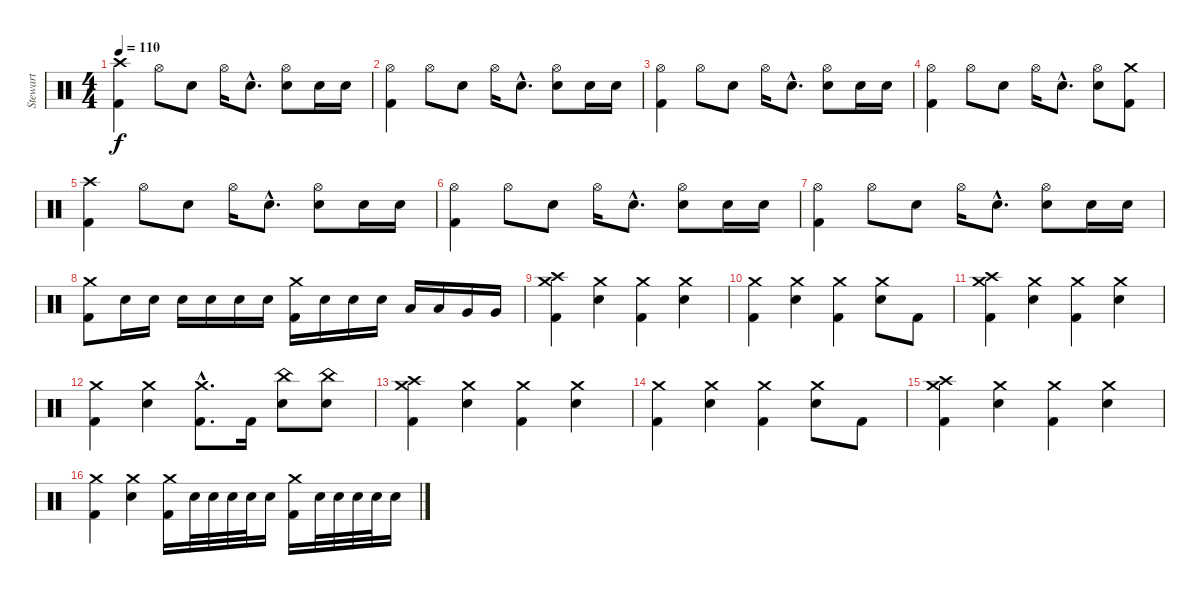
\track ("Stewart" "Stewart") {instrument percussion}
\staff {score}
\articulation defaults
\ts (4 4)
\tempo 110
\clef neutral
\ks c
("Crash high (hit)" "Kick (hit) 2").4{dy f} "Hi-Hat (open)".8 "Electric Snare (hit)".8 "Hi-Hat (open)".16 "Electric Snare (hit)"{hac}.8{d} ("Hi-Hat (open)" "Electric Snare (hit)").8 "Electric Snare (hit)".16 "Electric Snare (hit)".16 |
("Hi-Hat (open)" "Kick (hit) 2").4 "Hi-Hat (open)".8 "Electric Snare (hit)".8 "Hi-Hat (open)".16 "Electric Snare (hit)"{hac}.8{d} ("Hi-Hat (open)" "Electric Snare (hit)").8 "Electric Snare (hit)".16 "Electric Snare (hit)".16 |
("Hi-Hat (open)" "Kick (hit) 2").4 "Hi-Hat (open)".8 "Electric Snare (hit)".8 "Hi-Hat (open)".16 "Electric Snare (hit)"{hac}.8{d} ("Hi-Hat (open)" "Electric Snare (hit)").8 "Electric Snare (hit)".16 "Electric Snare (hit)".16 |
("Hi-Hat (open)" "Kick (hit) 2").4 "Hi-Hat (open)".8 "Electric Snare (hit)".8 "Hi-Hat (open)".16 "Electric Snare (hit)"{hac}.8{d} ("Hi-Hat (open)" "Electric Snare (hit)").8 ("Crash medium (hit)" "Kick (hit) 2").8 |
("Crash high (hit)" "Kick (hit) 2").4 "Hi-Hat (open)".8 "Electric Snare (hit)".8 "Hi-Hat (open)".16 "Electric Snare (hit)"{hac}.8{d} ("Hi-Hat (open)" "Electric Snare (hit)").8 "Electric Snare (hit)".16 "Electric Snare (hit)".16 |
("Hi-Hat (open)" "Kick (hit) 2").4 "Hi-Hat (open)".8 "Electric Snare (hit)".8 "Hi-Hat (open)".16 "Electric Snare (hit)"{hac}.8{d} ("Hi-Hat (open)" "Electric Snare (hit)").8 "Electric Snare (hit)".16 "Electric Snare (hit)".16 |
("Hi-Hat (open)" "Kick (hit) 2").4 "Hi-Hat (open)".8 "Electric Snare (hit)".8 "Hi-Hat (open)".16 "Electric Snare (hit)"{hac}.8{d} ("Hi-Hat (open)" "Electric Snare (hit)").8 "Electric Snare (hit)".16 "Electric Snare (hit)".16 |
("Crash medium (hit)" "Kick (hit) 2").8 "Electric Snare (hit)".16 "Electric Snare (hit)".16 "Electric Snare (hit)".16 "Electric Snare (hit)".16 "Electric Snare (hit)".16 "Electric Snare (hit)".16 ("Crash medium (hit)" "Kick (hit) 2").16 "Electric Snare (hit)".16 "Electric Snare (hit)".16 "Electric Snare (hit)".16 "Low Tom (hit)".16 "Low Tom (hit)".16 "Very Low Tom (hit)".16 "Very Low Tom (hit)".16 |
("Crash medium (hit)" "Crash high (hit)" "Kick (hit) 2").4 ("Crash medium (hit)" "Electric Snare (hit)").4 ("Crash medium (hit)" "Kick (hit) 2").4 ("Crash medium (hit)" "Electric Snare (hit)").4 |
("Crash medium (hit)" "Kick (hit) 2").4 ("Crash medium (hit)" "Electric Snare (hit)").4 ("Crash medium (hit)" "Kick (hit) 2").4 ("Crash medium (hit)" "Electric Snare (hit)").8 "Kick (hit) 2".8 |
("Crash medium (hit)" "Crash high (hit)" "Kick (hit) 2").4 ("Crash medium (hit)" "Electric Snare (hit)").4 ("Crash medium (hit)" "Kick (hit) 2").4 ("Crash medium (hit)" "Electric Snare (hit)").4 |
("Crash medium (hit)" "Kick (hit) 2").4 ("Crash medium (hit)" "Electric Snare (hit)").4 ("Crash medium (hit)"{hac} "Kick (hit) 2"{hac}).8{d} "Kick (hit) 2".16 ("China (hit)" "Electric Snare (hit)").8 ("China (hit)" "Electric Snare (hit)").8 |
("Crash medium (hit)" "Crash high (hit)" "Kick (hit) 2").4 ("Crash medium (hit)" "Electric Snare (hit)").4 ("Crash medium (hit)" "Kick (hit) 2").4 ("Crash medium (hit)" "Electric Snare (hit)").4 |
("Crash medium (hit)" "Kick (hit) 2").4 ("Crash medium (hit)" "Electric Snare (hit)").4 ("Crash medium (hit)" "Kick (hit) 2").4 ("Crash medium (hit)" "Electric Snare (hit)").8 "Kick (hit) 2".8 |
("Crash medium (hit)" "Crash high (hit)" "Kick (hit) 2").4 ("Crash medium (hit)" "Electric Snare (hit)").4 ("Crash medium (hit)" "Kick (hit) 2").4 ("Crash medium (hit)" "Electric Snare (hit)").4 |
("Crash medium (hit)" "Kick (hit) 2").4 ("Crash medium (hit)" "Electric Snare (hit)").4 ("Crash medium (hit)" "Kick (hit) 2").16 "Electric Snare (hit)".32 "Electric Snare (hit)".32 "Electric Snare (hit)".32 "Electric Snare (hit)".32 "Electric Snare (hit)".16 ("Crash medium (hit)" "Kick (hit) 2").16 "Electric Snare (hit)".32 "Electric Snare (hit)".32 "Electric Snare (hit)".32 "Electric Snare (hit)".32 "Electric Snare (hit)".16
